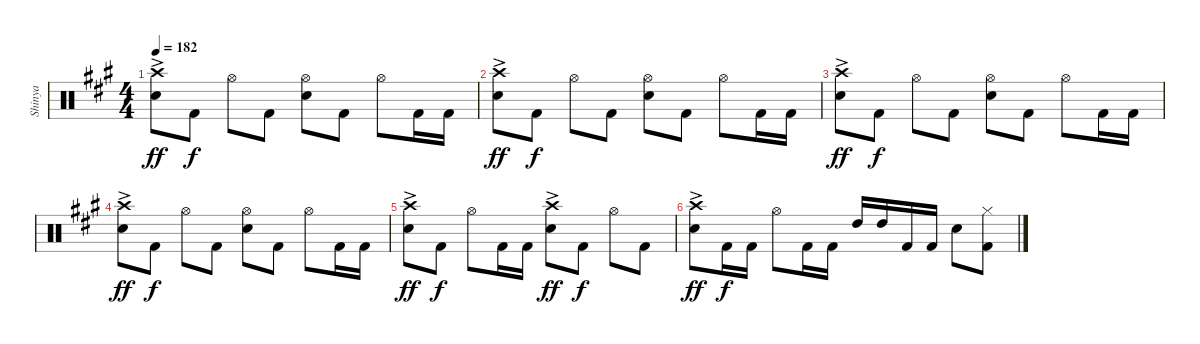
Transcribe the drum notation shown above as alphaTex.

\track ("Shinya" "Shinya") {instrument percussion}
\staff {score}
\articulation defaults
\ts (4 4)
\tempo 182
\clef neutral
\ks a
("Crash high (hit)"{ac} "Snare (hit) 2").8{dy ff} "Kick (hit) 2".8{dy f} "Hi-Hat (open)".8 "Kick (hit) 2".8 ("Hi-Hat (open)" "Snare (hit) 2").8 "Kick (hit) 2".8 "Hi-Hat (open)".8 "Kick (hit) 2".16 "Kick (hit) 2".16 |
("Crash high (hit)"{ac} "Snare (hit) 2").8{dy ff} "Kick (hit) 2".8{dy f} "Hi-Hat (open)".8 "Kick (hit) 2".8 ("Hi-Hat (open)" "Snare (hit) 2").8 "Kick (hit) 2".8 "Hi-Hat (open)".8 "Kick (hit) 2".16 "Kick (hit) 2".16 |
("Crash high (hit)"{ac} "Snare (hit) 2").8{dy ff} "Kick (hit) 2".8{dy f} "Hi-Hat (open)".8 "Kick (hit) 2".8 ("Hi-Hat (open)" "Snare (hit) 2").8 "Kick (hit) 2".8 "Hi-Hat (open)".8 "Kick (hit) 2".16 "Kick (hit) 2".16 |
("Crash high (hit)"{ac} "Snare (hit) 2").8{dy ff} "Kick (hit) 2".8{dy f} "Hi-Hat (open)".8 "Kick (hit) 2".8 ("Hi-Hat (open)" "Snare (hit) 2").8 "Kick (hit) 2".8 "Hi-Hat (open)".8 "Kick (hit) 2".16 "Kick (hit) 2".16 |
("Crash high (hit)"{ac} "Snare (hit) 2").8{dy ff} "Kick (hit) 2".8{dy f} "Hi-Hat (open)".8 "Kick (hit) 2".16 "Kick (hit) 2".16 ("Crash high (hit)"{ac} "Snare (hit) 2").8{dy ff} "Kick (hit) 2".8{dy f} "Hi-Hat (open)".8 "Kick (hit) 2".8 |
("Crash high (hit)"{ac} "Snare (hit) 2").8{dy ff} "Kick (hit) 2".16{dy f} "Kick (hit) 2".16 "Hi-Hat (open)".8 "Kick (hit) 2".16 "Kick (hit) 2".16 "High Tom (hit)".16 "High Tom (hit)".16 "Kick (hit) 2".16 "Kick (hit) 2".16 "Snare (hit) 2".8 ("Hi-Hat (closed)" "Kick (hit) 2").8
